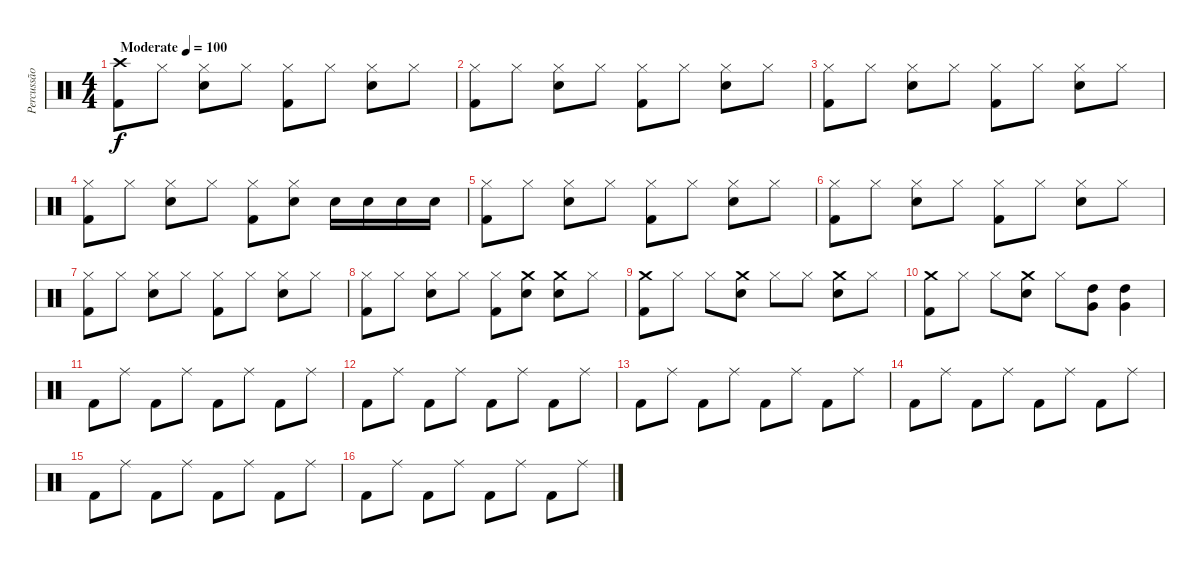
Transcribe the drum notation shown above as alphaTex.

\track ("Percussão" "Percussão") {instrument percussion}
\staff {score}
\articulation defaults
\ts (4 4)
\tempo (100 "Moderate")
\clef neutral
\ks c
("Crash high (hit)" "Kick (hit) 2").8{dy f} "Hi-Hat (closed)".8 ("Hi-Hat (closed)" "Snare (hit) 2").8 "Hi-Hat (closed)".8 ("Hi-Hat (closed)" "Kick (hit) 2").8 "Hi-Hat (closed)".8 ("Hi-Hat (closed)" "Snare (hit) 2").8 "Hi-Hat (closed)".8 |
("Hi-Hat (closed)" "Kick (hit) 2").8 "Hi-Hat (closed)".8 ("Hi-Hat (closed)" "Snare (hit) 2").8 "Hi-Hat (closed)".8 ("Hi-Hat (closed)" "Kick (hit) 2").8 "Hi-Hat (closed)".8 ("Hi-Hat (closed)" "Snare (hit) 2").8 "Hi-Hat (closed)".8 |
("Hi-Hat (closed)" "Kick (hit) 2").8 "Hi-Hat (closed)".8 ("Hi-Hat (closed)" "Snare (hit) 2").8 "Hi-Hat (closed)".8 ("Hi-Hat (closed)" "Kick (hit) 2").8 "Hi-Hat (closed)".8 ("Hi-Hat (closed)" "Snare (hit) 2").8 "Hi-Hat (closed)".8 |
("Hi-Hat (closed)" "Kick (hit) 2").8 "Hi-Hat (closed)".8 ("Hi-Hat (closed)" "Snare (hit) 2").8 "Hi-Hat (closed)".8 ("Hi-Hat (closed)" "Kick (hit) 2").8 ("Hi-Hat (closed)" "Snare (hit) 2").8 "Snare (hit) 2".16 "Snare (hit) 2".16 "Snare (hit) 2".16 "Snare (hit) 2".16 |
("Hi-Hat (closed)" "Kick (hit) 2").8 "Hi-Hat (closed)".8 ("Hi-Hat (closed)" "Snare (hit) 2").8 "Hi-Hat (closed)".8 ("Hi-Hat (closed)" "Kick (hit) 2").8 "Hi-Hat (closed)".8 ("Hi-Hat (closed)" "Snare (hit) 2").8 "Hi-Hat (closed)".8 |
("Hi-Hat (closed)" "Kick (hit) 2").8 "Hi-Hat (closed)".8 ("Hi-Hat (closed)" "Snare (hit) 2").8 "Hi-Hat (closed)".8 ("Hi-Hat (closed)" "Kick (hit) 2").8 "Hi-Hat (closed)".8 ("Hi-Hat (closed)" "Snare (hit) 2").8 "Hi-Hat (closed)".8 |
("Hi-Hat (closed)" "Kick (hit) 2").8 "Hi-Hat (closed)".8 ("Hi-Hat (closed)" "Snare (hit) 2").8 "Hi-Hat (closed)".8 ("Hi-Hat (closed)" "Kick (hit) 2").8 "Hi-Hat (closed)".8 ("Hi-Hat (closed)" "Snare (hit) 2").8 "Hi-Hat (closed)".8 |
("Hi-Hat (closed)" "Kick (hit) 2").8 "Hi-Hat (closed)".8 ("Hi-Hat (closed)" "Snare (hit) 2").8 "Hi-Hat (closed)".8 ("Hi-Hat (closed)" "Kick (hit) 2").8 ("Crash medium (hit)" "Snare (hit) 2").8 ("Crash medium (hit)" "Snare (hit) 2").8 "Hi-Hat (closed)".8 |
("Crash medium (hit)" "Kick (hit) 2").8 "Hi-Hat (closed)".8 "Hi-Hat (closed)".8 ("Crash medium (hit)" "Snare (hit) 2").8 "Hi-Hat (closed)".8 "Hi-Hat (closed)".8 ("Crash medium (hit)" "Snare (hit) 2").8 "Hi-Hat (closed)".8 |
("Crash medium (hit)" "Kick (hit) 2").8 "Hi-Hat (closed)".8 "Hi-Hat (closed)".8 ("Crash medium (hit)" "Snare (hit) 2").8 "Hi-Hat (closed)".8 ("Very Low Tom (hit)" "High Tom (hit)").8 ("Very Low Tom (hit)" "High Tom (hit)").4 |
"Kick (hit) 2".8 "Ride (middle)".8 "Kick (hit) 2".8 "Ride (middle)".8 "Kick (hit) 2".8 "Ride (middle)".8 "Kick (hit) 2".8 "Ride (middle)".8 |
"Kick (hit) 2".8 "Ride (middle)".8 "Kick (hit) 2".8 "Ride (middle)".8 "Kick (hit) 2".8 "Ride (middle)".8 "Kick (hit) 2".8 "Ride (middle)".8 |
"Kick (hit) 2".8 "Ride (middle)".8 "Kick (hit) 2".8 "Ride (middle)".8 "Kick (hit) 2".8 "Ride (middle)".8 "Kick (hit) 2".8 "Ride (middle)".8 |
"Kick (hit) 2".8 "Ride (middle)".8 "Kick (hit) 2".8 "Ride (middle)".8 "Kick (hit) 2".8 "Ride (middle)".8 "Kick (hit) 2".8 "Ride (middle)".8 |
"Kick (hit) 2".8 "Ride (middle)".8 "Kick (hit) 2".8 "Ride (middle)".8 "Kick (hit) 2".8 "Ride (middle)".8 "Kick (hit) 2".8 "Ride (middle)".8 |
"Kick (hit) 2".8 "Ride (middle)".8 "Kick (hit) 2".8 "Ride (middle)".8 "Kick (hit) 2".8 "Ride (middle)".8 "Kick (hit) 2".8 "Ride (middle)".8
